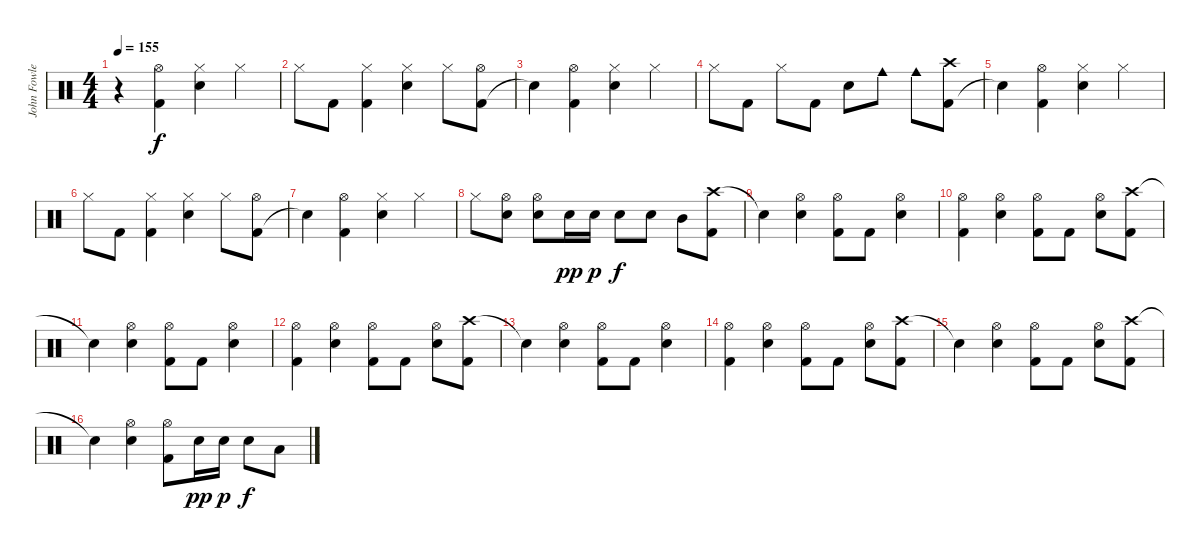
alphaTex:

\track ("John Fowler - Drums" "John Fowle") {instrument percussion}
\staff {score}
\articulation defaults
\ts (4 4)
\tempo 155
\clef neutral
\ks c
r.4{dy f} ("Hi-Hat (open)" "Kick (hit) 2").4 ("Hi-Hat (closed)" "Electric Snare (hit)").4 "Hi-Hat (closed)".4 |
"Hi-Hat (closed)".8 "Kick (hit) 2".8 ("Hi-Hat (closed)" "Kick (hit) 2").4 ("Electric Snare (hit)" "Hi-Hat (closed)").4 "Hi-Hat (closed)".8 ("Kick (hit) 2" "Hi-Hat (open)").8 |
"Snare (hit)"{t}.4 ("Hi-Hat (open)" "Kick (hit) 2").4 ("Hi-Hat (closed)" "Electric Snare (hit)").4 "Hi-Hat (closed)".4 |
"Hi-Hat (closed)".8 "Kick (hit) 2".8 "Hi-Hat (closed)".8 "Kick (hit) 2".8 "Electric Snare (hit)".8 "Cowbell medium (hit)".8 "Cowbell medium (hit)".8 ("Kick (hit) 2" "Crash high (hit)").8 |
"Snare (hit)"{t}.4 ("Hi-Hat (open)" "Kick (hit) 2").4 ("Hi-Hat (closed)" "Electric Snare (hit)").4 "Hi-Hat (closed)".4 |
"Hi-Hat (closed)".8 "Kick (hit) 2".8 ("Hi-Hat (closed)" "Kick (hit) 2").4 ("Electric Snare (hit)" "Hi-Hat (closed)").4 "Hi-Hat (closed)".8 ("Kick (hit) 2" "Hi-Hat (open)").8 |
"Snare (hit)"{t}.4 ("Hi-Hat (open)" "Kick (hit) 2").4 ("Hi-Hat (closed)" "Electric Snare (hit)").4 "Hi-Hat (closed)".4 |
"Hi-Hat (closed)".8 ("Electric Snare (hit)" "Hi-Hat (open)").8 ("Electric Snare (hit)" "Hi-Hat (open)").8 "Electric Snare (hit)".16{dy pp} "Electric Snare (hit)".16{dy p} "Electric Snare (hit)".8{dy f} "Electric Snare (hit)".8 "Mid Tom (hit)".8 ("Crash high (hit)" "Kick (hit) 2").8 |
"Snare (hit)"{t}.4 ("Electric Snare (hit)" "Hi-Hat (open)").4 ("Kick (hit) 2" "Hi-Hat (open)").8 "Kick (hit) 2".8 ("Electric Snare (hit)" "Hi-Hat (open)").4 |
("Kick (hit) 2" "Hi-Hat (open)").4 ("Electric Snare (hit)" "Hi-Hat (open)").4 ("Kick (hit) 2" "Hi-Hat (open)").8 "Kick (hit) 2".8 ("Electric Snare (hit)" "Hi-Hat (open)").8 ("Crash high (hit)" "Kick (hit) 2").8 |
"Snare (hit)"{t}.4 ("Hi-Hat (open)" "Electric Snare (hit)").4 ("Hi-Hat (open)" "Kick (hit) 2").8 "Kick (hit) 2".8 ("Hi-Hat (open)" "Electric Snare (hit)").4 |
("Hi-Hat (open)" "Kick (hit) 2").4 ("Hi-Hat (open)" "Electric Snare (hit)").4 ("Hi-Hat (open)" "Kick (hit) 2").8 "Kick (hit) 2".8 ("Hi-Hat (open)" "Electric Snare (hit)").8 ("Crash high (hit)" "Kick (hit) 2").8 |
"Snare (hit)"{t}.4 ("Hi-Hat (open)" "Electric Snare (hit)").4 ("Hi-Hat (open)" "Kick (hit) 2").8 "Kick (hit) 2".8 ("Hi-Hat (open)" "Electric Snare (hit)").4 |
("Hi-Hat (open)" "Kick (hit) 2").4 ("Hi-Hat (open)" "Electric Snare (hit)").4 ("Hi-Hat (open)" "Kick (hit) 2").8 "Kick (hit) 2".8 ("Hi-Hat (open)" "Electric Snare (hit)").8 ("Crash high (hit)" "Kick (hit) 2").8 |
"Snare (hit)"{t}.4 ("Hi-Hat (open)" "Electric Snare (hit)").4 ("Hi-Hat (open)" "Kick (hit) 2").8 "Kick (hit) 2".8 ("Hi-Hat (open)" "Electric Snare (hit)").8 ("Crash high (hit)" "Kick (hit) 2").8 |
"Snare (hit)"{t}.4 ("Hi-Hat (open)" "Electric Snare (hit)").4 ("Hi-Hat (open)" "Kick (hit) 2").8 "Electric Snare (hit)".16{dy pp} "Electric Snare (hit)".16{dy p} "Electric Snare (hit)".8{dy f} "Low Tom (hit)".8
